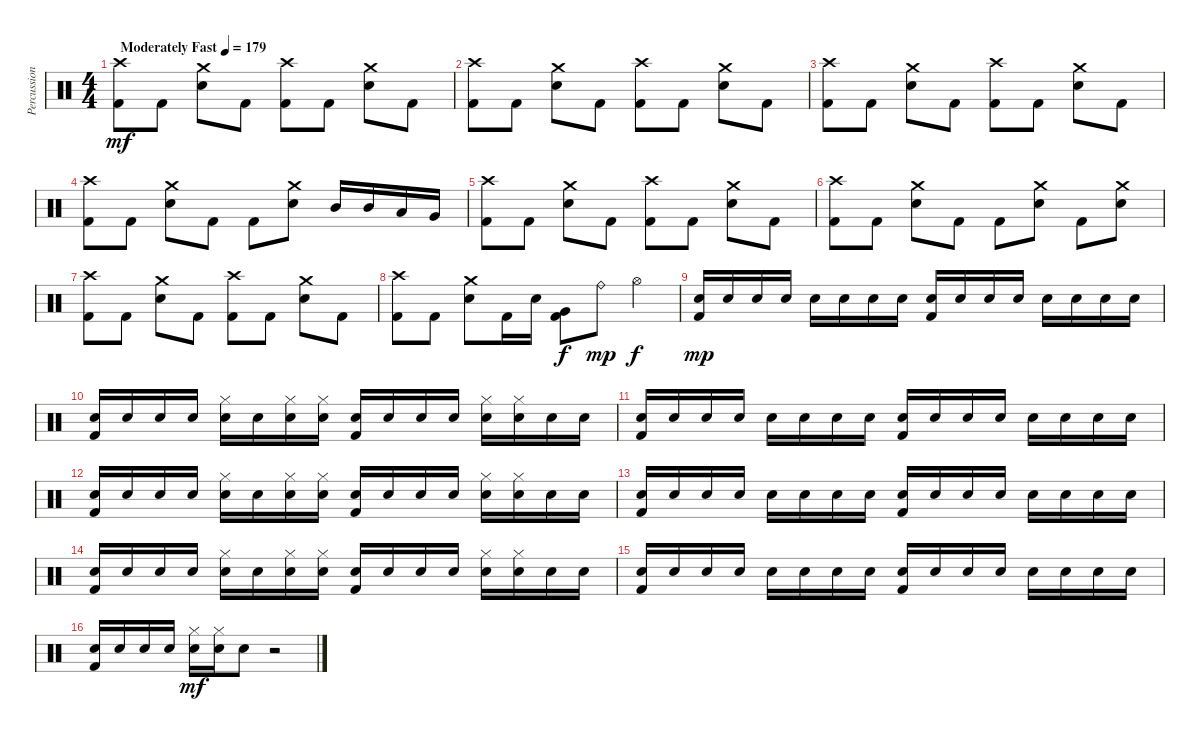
\track ("Percussion" "Percussion") {instrument percussion}
\staff {score}
\articulation defaults
\ts (4 4)
\tempo (179 "Moderately Fast")
\clef neutral
\ks c
("Crash high (hit)" "Kick (hit) 2").8{dy mf} "Kick (hit) 2".8 ("Crash medium (hit)" "Electric Snare (hit)").8 "Kick (hit) 2".8 ("Crash high (hit)" "Kick (hit) 2").8 "Kick (hit) 2".8 ("Crash medium (hit)" "Electric Snare (hit)").8 "Kick (hit) 2".8 |
("Crash high (hit)" "Kick (hit) 2").8 "Kick (hit) 2".8 ("Crash medium (hit)" "Electric Snare (hit)").8 "Kick (hit) 2".8 ("Crash high (hit)" "Kick (hit) 2").8 "Kick (hit) 2".8 ("Crash medium (hit)" "Electric Snare (hit)").8 "Kick (hit) 2".8 |
("Crash high (hit)" "Kick (hit) 2").8 "Kick (hit) 2".8 ("Crash medium (hit)" "Electric Snare (hit)").8 "Kick (hit) 2".8 ("Crash high (hit)" "Kick (hit) 2").8 "Kick (hit) 2".8 ("Crash medium (hit)" "Electric Snare (hit)").8 "Kick (hit) 2".8 |
("Crash high (hit)" "Kick (hit) 2").8 "Kick (hit) 2".8 ("Crash medium (hit)" "Electric Snare (hit)").8 "Kick (hit) 2".8 "Kick (hit) 2".8 ("Crash medium (hit)" "Electric Snare (hit)").8 "Mid Tom (hit)".16 "Mid Tom (hit)".16 "Low Tom (hit)".16 "Very Low Tom (hit)".16 |
("Crash high (hit)" "Kick (hit) 2").8 "Kick (hit) 2".8 ("Crash medium (hit)" "Electric Snare (hit)").8 "Kick (hit) 2".8 ("Crash high (hit)" "Kick (hit) 2").8 "Kick (hit) 2".8 ("Crash medium (hit)" "Electric Snare (hit)").8 "Kick (hit) 2".8 |
("Crash high (hit)" "Kick (hit) 2").8 "Kick (hit) 2".8 ("Crash medium (hit)" "Electric Snare (hit)").8 "Kick (hit) 2".8 "Kick (hit) 2".8 ("Crash medium (hit)" "Electric Snare (hit)").8 "Kick (hit) 2".8 ("Crash medium (hit)" "Electric Snare (hit)").8 |
("Crash high (hit)" "Kick (hit) 2").8 "Kick (hit) 2".8 ("Crash medium (hit)" "Electric Snare (hit)").8 "Kick (hit) 2".8 ("Crash high (hit)" "Kick (hit) 2").8 "Kick (hit) 2".8 ("Crash medium (hit)" "Electric Snare (hit)").8 "Kick (hit) 2".8 |
("Crash high (hit)" "Kick (hit) 2").8 "Kick (hit) 2".8 ("Crash medium (hit)" "Electric Snare (hit)").8 "Kick (hit) 2".16 "Electric Snare (hit)".16 ("Very Low Tom (hit)" "Kick (hit) 2").8{dy f} "Ride (bell)".8{dy mp} "Hi-Hat (open)".4{dy f} |
("Electric Snare (hit)" "Kick (hit) 2").16{dy mp} "Electric Snare (hit)".16 "Electric Snare (hit)".16 "Electric Snare (hit)".16 "Electric Snare (hit)".16 "Electric Snare (hit)".16 "Electric Snare (hit)".16 "Electric Snare (hit)".16 ("Electric Snare (hit)" "Kick (hit) 2").16 "Electric Snare (hit)".16 "Electric Snare (hit)".16 "Electric Snare (hit)".16 "Electric Snare (hit)".16 "Electric Snare (hit)".16 "Electric Snare (hit)".16 "Electric Snare (hit)".16 |
("Electric Snare (hit)" "Kick (hit) 2").16 "Electric Snare (hit)".16 "Electric Snare (hit)".16 "Electric Snare (hit)".16 ("Hi-Hat (closed)" "Electric Snare (hit)").16 "Electric Snare (hit)".16 ("Hi-Hat (closed)" "Electric Snare (hit)").16 ("Hi-Hat (closed)" "Electric Snare (hit)").16 ("Electric Snare (hit)" "Kick (hit) 2").16 "Electric Snare (hit)".16 "Electric Snare (hit)".16 "Electric Snare (hit)".16 ("Hi-Hat (closed)" "Electric Snare (hit)").16 ("Hi-Hat (closed)" "Electric Snare (hit)").16 "Electric Snare (hit)".16 "Electric Snare (hit)".16 |
("Electric Snare (hit)" "Kick (hit) 2").16 "Electric Snare (hit)".16 "Electric Snare (hit)".16 "Electric Snare (hit)".16 "Electric Snare (hit)".16 "Electric Snare (hit)".16 "Electric Snare (hit)".16 "Electric Snare (hit)".16 ("Electric Snare (hit)" "Kick (hit) 2").16 "Electric Snare (hit)".16 "Electric Snare (hit)".16 "Electric Snare (hit)".16 "Electric Snare (hit)".16 "Electric Snare (hit)".16 "Electric Snare (hit)".16 "Electric Snare (hit)".16 |
("Electric Snare (hit)" "Kick (hit) 2").16 "Electric Snare (hit)".16 "Electric Snare (hit)".16 "Electric Snare (hit)".16 ("Hi-Hat (closed)" "Electric Snare (hit)").16 "Electric Snare (hit)".16 ("Hi-Hat (closed)" "Electric Snare (hit)").16 ("Hi-Hat (closed)" "Electric Snare (hit)").16 ("Electric Snare (hit)" "Kick (hit) 2").16 "Electric Snare (hit)".16 "Electric Snare (hit)".16 "Electric Snare (hit)".16 ("Hi-Hat (closed)" "Electric Snare (hit)").16 ("Hi-Hat (closed)" "Electric Snare (hit)").16 "Electric Snare (hit)".16 "Electric Snare (hit)".16 |
("Electric Snare (hit)" "Kick (hit) 2").16 "Electric Snare (hit)".16 "Electric Snare (hit)".16 "Electric Snare (hit)".16 "Electric Snare (hit)".16 "Electric Snare (hit)".16 "Electric Snare (hit)".16 "Electric Snare (hit)".16 ("Electric Snare (hit)" "Kick (hit) 2").16 "Electric Snare (hit)".16 "Electric Snare (hit)".16 "Electric Snare (hit)".16 "Electric Snare (hit)".16 "Electric Snare (hit)".16 "Electric Snare (hit)".16 "Electric Snare (hit)".16 |
("Electric Snare (hit)" "Kick (hit) 2").16 "Electric Snare (hit)".16 "Electric Snare (hit)".16 "Electric Snare (hit)".16 ("Hi-Hat (closed)" "Electric Snare (hit)").16 "Electric Snare (hit)".16 ("Hi-Hat (closed)" "Electric Snare (hit)").16 ("Hi-Hat (closed)" "Electric Snare (hit)").16 ("Electric Snare (hit)" "Kick (hit) 2").16 "Electric Snare (hit)".16 "Electric Snare (hit)".16 "Electric Snare (hit)".16 ("Hi-Hat (closed)" "Electric Snare (hit)").16 ("Hi-Hat (closed)" "Electric Snare (hit)").16 "Electric Snare (hit)".16 "Electric Snare (hit)".16 |
("Electric Snare (hit)" "Kick (hit) 2").16 "Electric Snare (hit)".16 "Electric Snare (hit)".16 "Electric Snare (hit)".16 "Electric Snare (hit)".16 "Electric Snare (hit)".16 "Electric Snare (hit)".16 "Electric Snare (hit)".16 ("Electric Snare (hit)" "Kick (hit) 2").16 "Electric Snare (hit)".16 "Electric Snare (hit)".16 "Electric Snare (hit)".16 "Electric Snare (hit)".16 "Electric Snare (hit)".16 "Electric Snare (hit)".16 "Electric Snare (hit)".16 |
("Electric Snare (hit)" "Kick (hit) 2").16 "Electric Snare (hit)".16 "Electric Snare (hit)".16 "Electric Snare (hit)".16 ("Hi-Hat (closed)" "Electric Snare (hit)").16{dy mf} ("Hi-Hat (closed)" "Electric Snare (hit)").16 "Electric Snare (hit)".8 r.2
